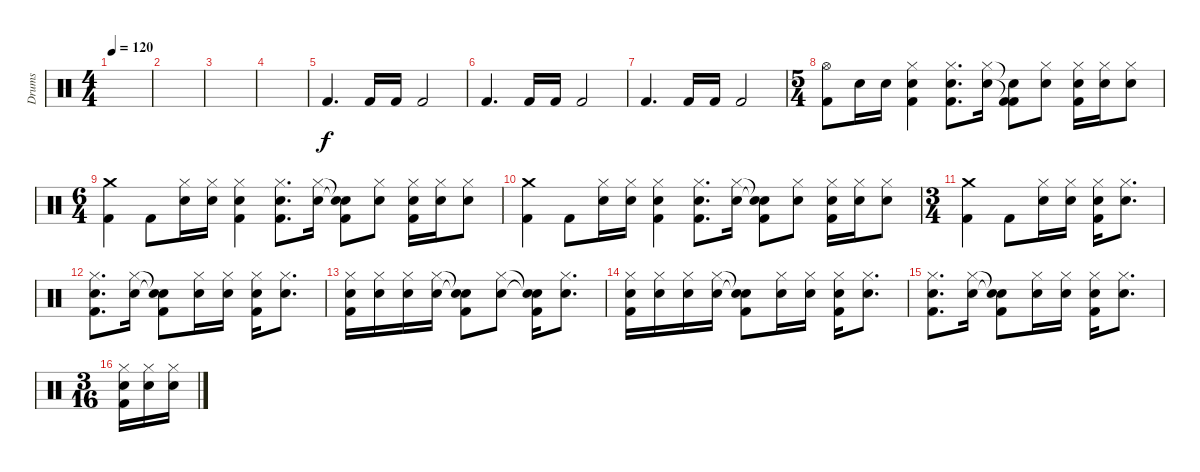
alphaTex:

\track ("Drums" "Drums") {instrument percussion}
\staff {score}
\articulation defaults
\ts (4 4)
\tempo 120
\clef neutral
\ks c
|
|
|
|
"Kick (hit) 2".4{d} "Kick (hit) 2".16 "Kick (hit) 2".16 "Kick (hit) 2".2 |
"Kick (hit) 2".4{d} "Kick (hit) 2".16 "Kick (hit) 2".16 "Kick (hit) 2".2 |
"Kick (hit) 2".4{d} "Kick (hit) 2".16 "Kick (hit) 2".16 "Kick (hit) 2".2 |
\ts (5 4)
("Hi-Hat (open)" "Kick (hit) 2").8 "Electric Snare (hit)".16 "Electric Snare (hit)".16 ("Hi-Hat (closed)" "Electric Snare (hit)" "Kick (hit) 2").4 ("Hi-Hat (closed)" "Electric Snare (hit)" "Kick (hit) 2").8{d} ("Hi-Hat (closed)" "Electric Snare (hit)").16 ("Snare (hit)"{t} "Kick (hit) 2"{t} "Kick (hit) 2").8 ("Hi-Hat (closed)" "Electric Snare (hit)").8 ("Hi-Hat (closed)" "Electric Snare (hit)" "Kick (hit) 2").16 ("Hi-Hat (closed)" "Electric Snare (hit)").16 ("Hi-Hat (closed)" "Electric Snare (hit)").8 |
\ts (6 4)
("Crash medium (hit)" "Kick (hit) 2").4 "Kick (hit) 2".8 ("Hi-Hat (closed)" "Electric Snare (hit)").16 ("Hi-Hat (closed)" "Electric Snare (hit)").16 ("Hi-Hat (closed)" "Electric Snare (hit)" "Kick (hit) 2").4 ("Hi-Hat (closed)" "Electric Snare (hit)" "Kick (hit) 2").8{d} ("Hi-Hat (closed)" "Electric Snare (hit)").16 ("Snare (hit)"{t} "Snare (hit)"{t} "Kick (hit) 2").8 ("Hi-Hat (closed)" "Electric Snare (hit)").8 ("Hi-Hat (closed)" "Electric Snare (hit)" "Kick (hit) 2").16 ("Hi-Hat (closed)" "Electric Snare (hit)").16 ("Hi-Hat (closed)" "Electric Snare (hit)").8 |
("Crash medium (hit)" "Kick (hit) 2").4 "Kick (hit) 2".8 ("Hi-Hat (closed)" "Electric Snare (hit)").16 ("Hi-Hat (closed)" "Electric Snare (hit)").16 ("Hi-Hat (closed)" "Electric Snare (hit)" "Kick (hit) 2").4 ("Hi-Hat (closed)" "Electric Snare (hit)" "Kick (hit) 2").8{d} ("Hi-Hat (closed)" "Electric Snare (hit)").16 ("Snare (hit)"{t} "Snare (hit)"{t} "Kick (hit) 2").8 ("Hi-Hat (closed)" "Electric Snare (hit)").8 ("Hi-Hat (closed)" "Electric Snare (hit)" "Kick (hit) 2").16 ("Hi-Hat (closed)" "Electric Snare (hit)").16 ("Hi-Hat (closed)" "Electric Snare (hit)").8 |
\ts (3 4)
("Crash medium (hit)" "Kick (hit) 2").4 "Kick (hit) 2".8 ("Hi-Hat (closed)" "Electric Snare (hit)").16 ("Hi-Hat (closed)" "Electric Snare (hit)").16 ("Hi-Hat (closed)" "Electric Snare (hit)" "Kick (hit) 2").16 ("Hi-Hat (closed)" "Electric Snare (hit)").8{d} |
("Hi-Hat (closed)" "Electric Snare (hit)" "Kick (hit) 2").8{d} ("Hi-Hat (closed)" "Electric Snare (hit)").16 ("Snare (hit)"{t} "Snare (hit)"{t} "Kick (hit) 2").8 ("Hi-Hat (closed)" "Electric Snare (hit)").16 ("Hi-Hat (closed)" "Electric Snare (hit)").16 ("Hi-Hat (closed)" "Electric Snare (hit)" "Kick (hit) 2").16 ("Hi-Hat (closed)" "Electric Snare (hit)").8{d} |
("Hi-Hat (closed)" "Electric Snare (hit)" "Kick (hit) 2").16 ("Hi-Hat (closed)" "Electric Snare (hit)").16 ("Hi-Hat (closed)" "Electric Snare (hit)").16 ("Hi-Hat (closed)" "Electric Snare (hit)").16 ("Snare (hit)"{t} "Snare (hit)"{t} "Kick (hit) 2").8 ("Hi-Hat (closed)" "Electric Snare (hit)").8 ("Snare (hit)"{t} "Snare (hit)"{t} "Kick (hit) 2").16 ("Hi-Hat (closed)" "Electric Snare (hit)").8{d} |
("Hi-Hat (closed)" "Electric Snare (hit)" "Kick (hit) 2").16 ("Hi-Hat (closed)" "Electric Snare (hit)").16 ("Hi-Hat (closed)" "Electric Snare (hit)").16 ("Hi-Hat (closed)" "Electric Snare (hit)").16 ("Snare (hit)"{t} "Snare (hit)"{t} "Kick (hit) 2").8 ("Hi-Hat (closed)" "Electric Snare (hit)").16 ("Hi-Hat (closed)" "Electric Snare (hit)").16 ("Hi-Hat (closed)" "Electric Snare (hit)" "Kick (hit) 2").16 ("Hi-Hat (closed)" "Electric Snare (hit)").8{d} |
("Hi-Hat (closed)" "Electric Snare (hit)" "Kick (hit) 2").8{d} ("Hi-Hat (closed)" "Electric Snare (hit)").16 ("Snare (hit)"{t} "Snare (hit)"{t} "Kick (hit) 2").8 ("Hi-Hat (closed)" "Electric Snare (hit)").16 ("Hi-Hat (closed)" "Electric Snare (hit)").16 ("Hi-Hat (closed)" "Electric Snare (hit)" "Kick (hit) 2").16 ("Hi-Hat (closed)" "Electric Snare (hit)").8{d} |
\ts (3 16)
("Hi-Hat (closed)" "Electric Snare (hit)" "Kick (hit) 2").16 ("Hi-Hat (closed)" "Electric Snare (hit)").16 ("Hi-Hat (closed)" "Electric Snare (hit)").16
